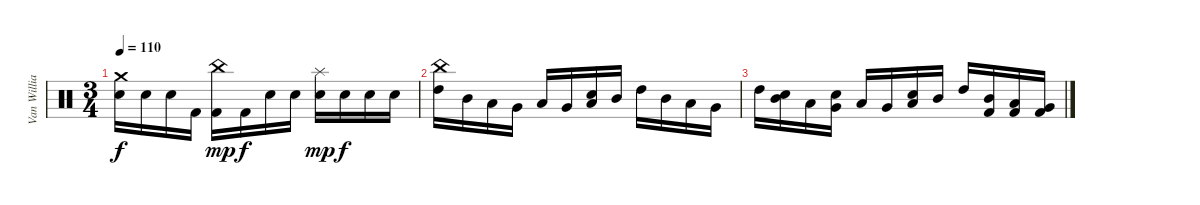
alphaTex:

\track ("Van Williams" "Van Willia") {instrument percussion}
\staff {score}
\articulation defaults
\ts (3 4)
\tempo 110
\clef neutral
\ks c
("Crash medium (hit)" "Electric Snare (hit)").16{dy f} "Electric Snare (hit)".16 "Electric Snare (hit)".16 "Kick (hit) 2".16 ("China (hit)" "Kick (hit) 2").16{dy mp} "Kick (hit) 2".16{dy f} "Electric Snare (hit)".16 "Electric Snare (hit)".16 ("Splash (hit)" "Electric Snare (hit)").16{dy mp} "Electric Snare (hit)".16{dy f} "Electric Snare (hit)".16 "Electric Snare (hit)".16 |
("China (hit)" "High Tom (hit)").16 "Mid Tom (hit)".16 "Low Tom (hit)".16 "Very Low Tom (hit)".16 "Low Floor Tom (hit)".16 "Very Low Tom (hit)".16 ("Electric Snare (hit)" "Low Tom (hit)").16 "Mid Tom (hit)".16 "High Tom (hit)".16 "Mid Tom (hit)".16 "Low Tom (hit)".16 "Very Low Tom (hit)".16 |
"High Tom (hit)".16 ("Electric Snare (hit)" "Mid Tom (hit)").16 "Low Tom (hit)".16 ("Electric Snare (hit)" "Very Low Tom (hit)").16 "Low Floor Tom (hit)".16 "Very Low Tom (hit)".16 ("Electric Snare (hit)" "Low Tom (hit)").16 "Mid Tom (hit)".16 "High Tom (hit)".16 ("Mid Tom (hit)" "Kick (hit) 2").16 ("Low Tom (hit)" "Kick (hit) 2").16 ("Very Low Tom (hit)" "Kick (hit) 2").16
